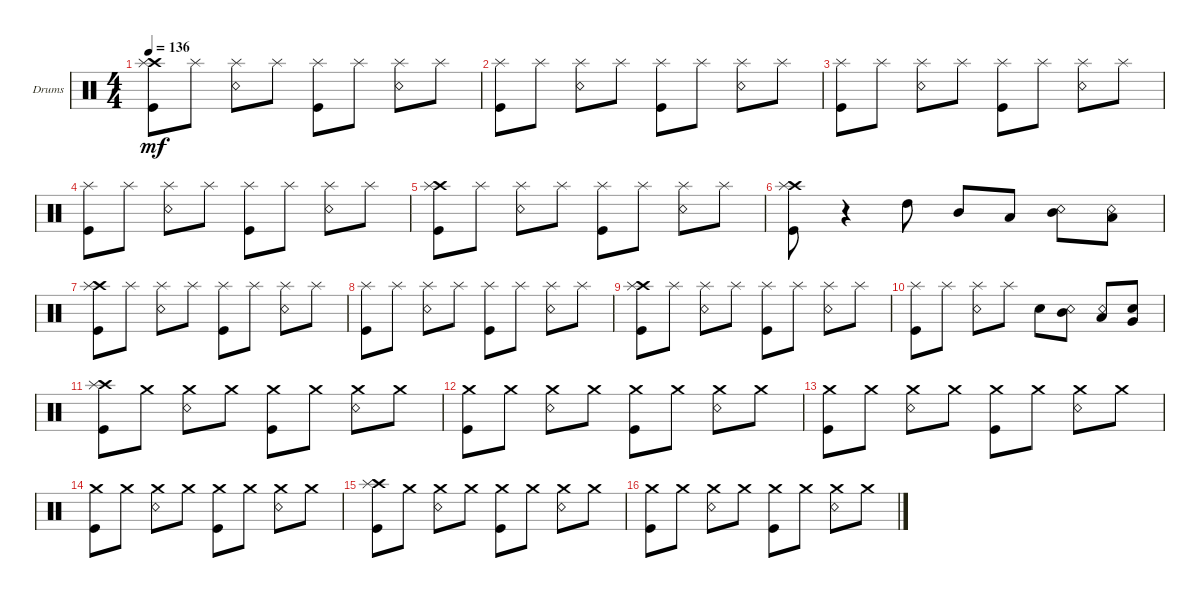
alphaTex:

\defaultSystemsLayout 4
\bracketExtendMode groupsimilarinstruments
\firstSystemTrackNameOrientation horizontal
\otherSystemsTrackNameOrientation horizontal
\track ("Нюта" "Drums") {instrument percussion}
\staff {score}
\articulation defaults
\ts (4 4)
\tempo 136
\clef neutral
\ks c
("Crash high (hit)" "Kick (hit)" "Splash (hit)").8{dy mf} "Splash (hit)".8 ("Snare (rim shot)" "Splash (hit)").8 "Splash (hit)".8 ("Kick (hit)" "Splash (hit)").8 "Splash (hit)".8 ("Snare (rim shot)" "Splash (hit)").8 "Splash (hit)".8 |
("Kick (hit)" "Splash (hit)").8 "Splash (hit)".8 ("Snare (rim shot)" "Splash (hit)").8 "Splash (hit)".8 ("Kick (hit)" "Splash (hit)").8 "Splash (hit)".8 ("Snare (rim shot)" "Splash (hit)").8 "Splash (hit)".8 |
("Kick (hit)" "Splash (hit)").8 "Splash (hit)".8 ("Snare (rim shot)" "Splash (hit)").8 "Splash (hit)".8 ("Kick (hit)" "Splash (hit)").8 "Splash (hit)".8 ("Snare (rim shot)" "Splash (hit)").8 "Splash (hit)".8 |
("Kick (hit)" "Splash (hit)").8 "Splash (hit)".8 ("Snare (rim shot)" "Splash (hit)").8 "Splash (hit)".8 ("Kick (hit)" "Splash (hit)").8 "Splash (hit)".8 ("Snare (rim shot)" "Splash (hit)").8 "Splash (hit)".8 |
("Crash high (hit)" "Kick (hit)" "Splash (hit)").8 "Splash (hit)".8 ("Snare (rim shot)" "Splash (hit)").8 "Splash (hit)".8 ("Kick (hit)" "Splash (hit)").8 "Splash (hit)".8 ("Snare (rim shot)" "Splash (hit)").8 "Splash (hit)".8 |
("Crash high (hit)" "Kick (hit)" "Splash (hit)").8 r.4 "High Tom (hit)".8 "Mid Tom (hit)".8 "Low Tom (hit)".8 ("Mid Tom (hit)" "Snare (rim shot)").8 ("Low Tom (hit)" "Snare (rim shot)").8 |
("Crash high (hit)" "Kick (hit)" "Splash (hit)").8 "Splash (hit)".8 ("Snare (rim shot)" "Splash (hit)").8 "Splash (hit)".8 ("Kick (hit)" "Splash (hit)").8 "Splash (hit)".8 ("Snare (rim shot)" "Splash (hit)").8 "Splash (hit)".8 |
("Kick (hit)" "Splash (hit)").8 "Splash (hit)".8 ("Snare (rim shot)" "Splash (hit)").8 "Splash (hit)".8 ("Kick (hit)" "Splash (hit)").8 "Splash (hit)".8 ("Snare (rim shot)" "Splash (hit)").8 "Splash (hit)".8 |
("Crash high (hit)" "Kick (hit)" "Splash (hit)").8 "Splash (hit)".8 ("Snare (rim shot)" "Splash (hit)").8 "Splash (hit)".8 ("Kick (hit)" "Splash (hit)").8 "Splash (hit)".8 ("Snare (rim shot)" "Splash (hit)").8 "Splash (hit)".8 |
("Kick (hit)" "Splash (hit)").8 "Splash (hit)".8 ("Snare (rim shot)" "Splash (hit)").8 "Splash (hit)".8 "Snare (hit) 2".8 ("Mid Tom (hit)" "Snare (rim shot)").8 ("Low Tom (hit)" "Snare (rim shot)").8 ("Very Low Tom (hit)" "Snare (hit) 2").8 |
("Crash high (hit)" "Kick (hit)" "Splash (hit)").8 "Crash medium (hit)".8 ("Snare (rim shot)" "Crash medium (hit)").8 "Crash medium (hit)".8 ("Kick (hit)" "Crash medium (hit)").8 "Crash medium (hit)".8 ("Snare (rim shot)" "Crash medium (hit)").8 "Crash medium (hit)".8 |
("Kick (hit)" "Crash medium (hit)").8 "Crash medium (hit)".8 ("Snare (rim shot)" "Crash medium (hit)").8 "Crash medium (hit)".8 ("Kick (hit)" "Crash medium (hit)").8 "Crash medium (hit)".8 ("Snare (rim shot)" "Crash medium (hit)").8 "Crash medium (hit)".8 |
("Kick (hit)" "Crash medium (hit)").8 "Crash medium (hit)".8 ("Snare (rim shot)" "Crash medium (hit)").8 "Crash medium (hit)".8 ("Kick (hit)" "Crash medium (hit)").8 "Crash medium (hit)".8 ("Snare (rim shot)" "Crash medium (hit)").8 "Crash medium (hit)".8 |
("Kick (hit)" "Crash medium (hit)").8 "Crash medium (hit)".8 ("Snare (rim shot)" "Crash medium (hit)").8 "Crash medium (hit)".8 ("Kick (hit)" "Crash medium (hit)").8 "Crash medium (hit)".8 ("Snare (rim shot)" "Crash medium (hit)").8 "Crash medium (hit)".8 |
("Crash high (hit)" "Kick (hit)" "Splash (hit)").8 "Crash medium (hit)".8 ("Snare (rim shot)" "Crash medium (hit)").8 "Crash medium (hit)".8 ("Kick (hit)" "Crash medium (hit)").8 "Crash medium (hit)".8 ("Snare (rim shot)" "Crash medium (hit)").8 "Crash medium (hit)".8 |
("Kick (hit)" "Crash medium (hit)").8 "Crash medium (hit)".8 ("Snare (rim shot)" "Crash medium (hit)").8 "Crash medium (hit)".8 ("Kick (hit)" "Crash medium (hit)").8 "Crash medium (hit)".8 ("Snare (rim shot)" "Crash medium (hit)").8 "Crash medium (hit)".8
